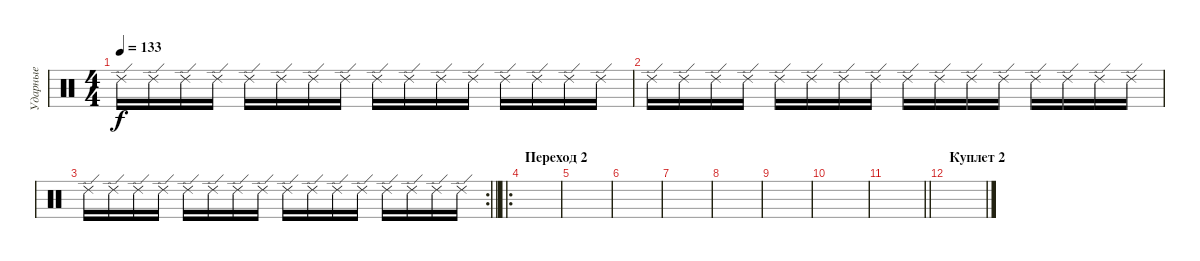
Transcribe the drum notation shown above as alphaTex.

\track ("Ударные" "Ударные") {instrument percussion}
\staff {score}
\articulation defaults
\ts (4 4)
\tempo 133
\clef neutral
\ks c "Ride (edge) 2".16{dy f} "Ride (edge) 2".16 "Ride (edge) 2".16 "Ride (edge) 2".16 "Ride (edge) 2".16 "Ride (edge) 2".16 "Ride (edge) 2".16 "Ride (edge) 2".16 "Ride (edge) 2".16 "Ride (edge) 2".16 "Ride (edge) 2".16 "Ride (edge) 2".16 "Ride (edge) 2".16 "Ride (edge) 2".16 "Ride (edge) 2".16 "Ride (edge) 2".16
|
"Ride (edge) 2".16 "Ride (edge) 2".16 "Ride (edge) 2".16 "Ride (edge) 2".16 "Ride (edge) 2".16 "Ride (edge) 2".16 "Ride (edge) 2".16 "Ride (edge) 2".16 "Ride (edge) 2".16 "Ride (edge) 2".16 "Ride (edge) 2".16 "Ride (edge) 2".16 "Ride (edge) 2".16 "Ride (edge) 2".16 "Ride (edge) 2".16 "Ride (edge) 2".16 |
\rc 2
\barLineRight lightlight "Ride (edge) 2".16 "Ride (edge) 2".16 "Ride (edge) 2".16 "Ride (edge) 2".16 "Ride (edge) 2".16 "Ride (edge) 2".16 "Ride (edge) 2".16 "Ride (edge) 2".16 "Ride (edge) 2".16 "Ride (edge) 2".16 "Ride (edge) 2".16 "Ride (edge) 2".16 "Ride (edge) 2".16 "Ride (edge) 2".16 "Ride (edge) 2".16 "Ride (edge) 2".16
|
\ro
\section ("" "Переход 2")
|
|
|
|
|
|
|
\barLineRight lightlight
|
\section ("" "Куплет 2")
